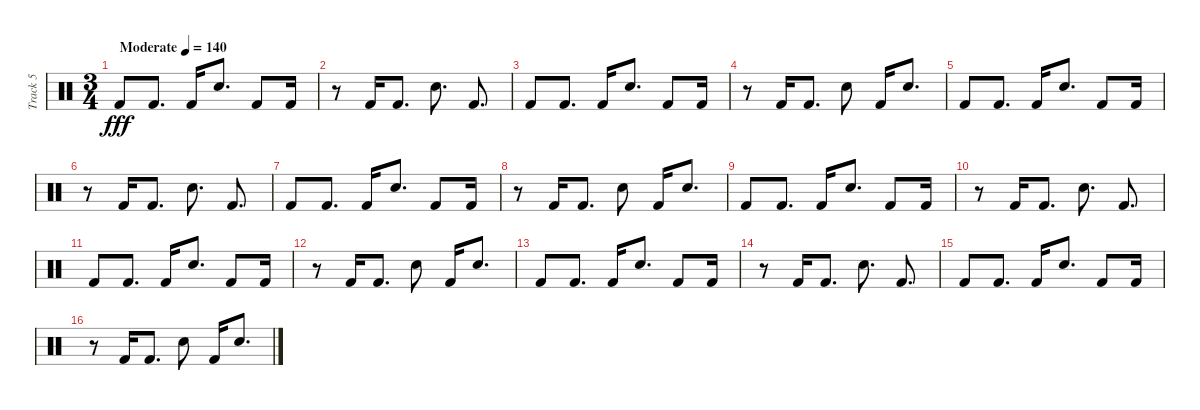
\track ("Track 5" "Track 5") {instrument percussion}
\staff {score}
\articulation defaults
\ts (3 4)
\tempo (140 "Moderate")
\clef neutral
\ks c "Kick (hit) 2".8{dy fff} "Kick (hit) 2".8{d} "Kick (hit) 2".16 "Electric Snare (hit)".8{d} "Kick (hit) 2".8 "Kick (hit) 2".16
|
r.8 "Kick (hit) 2".16 "Kick (hit) 2".8{d} "Electric Snare (hit)".8{d} "Kick (hit) 2".8{d} |
"Kick (hit) 2".8 "Kick (hit) 2".8{d} "Kick (hit) 2".16 "Electric Snare (hit)".8{d} "Kick (hit) 2".8 "Kick (hit) 2".16 |
r.8 "Kick (hit) 2".16 "Kick (hit) 2".8{d} "Electric Snare (hit)".8 "Kick (hit) 2".16 "Electric Snare (hit)".8{d} |
"Kick (hit) 2".8 "Kick (hit) 2".8{d} "Kick (hit) 2".16 "Electric Snare (hit)".8{d} "Kick (hit) 2".8 "Kick (hit) 2".16 |
r.8 "Kick (hit) 2".16 "Kick (hit) 2".8{d} "Electric Snare (hit)".8{d} "Kick (hit) 2".8{d} |
"Kick (hit) 2".8 "Kick (hit) 2".8{d} "Kick (hit) 2".16 "Electric Snare (hit)".8{d} "Kick (hit) 2".8 "Kick (hit) 2".16 |
r.8 "Kick (hit) 2".16 "Kick (hit) 2".8{d} "Electric Snare (hit)".8 "Kick (hit) 2".16 "Electric Snare (hit)".8{d} |
"Kick (hit) 2".8 "Kick (hit) 2".8{d} "Kick (hit) 2".16 "Electric Snare (hit)".8{d} "Kick (hit) 2".8 "Kick (hit) 2".16 |
r.8 "Kick (hit) 2".16 "Kick (hit) 2".8{d} "Electric Snare (hit)".8{d} "Kick (hit) 2".8{d} |
"Kick (hit) 2".8 "Kick (hit) 2".8{d} "Kick (hit) 2".16 "Electric Snare (hit)".8{d} "Kick (hit) 2".8 "Kick (hit) 2".16 |
r.8 "Kick (hit) 2".16 "Kick (hit) 2".8{d} "Electric Snare (hit)".8 "Kick (hit) 2".16 "Electric Snare (hit)".8{d} |
"Kick (hit) 2".8 "Kick (hit) 2".8{d} "Kick (hit) 2".16 "Electric Snare (hit)".8{d} "Kick (hit) 2".8 "Kick (hit) 2".16 |
r.8 "Kick (hit) 2".16 "Kick (hit) 2".8{d} "Electric Snare (hit)".8{d} "Kick (hit) 2".8{d} |
"Kick (hit) 2".8 "Kick (hit) 2".8{d} "Kick (hit) 2".16 "Electric Snare (hit)".8{d} "Kick (hit) 2".8 "Kick (hit) 2".16 |
r.8 "Kick (hit) 2".16 "Kick (hit) 2".8{d} "Electric Snare (hit)".8 "Kick (hit) 2".16 "Electric Snare (hit)".8{d}
